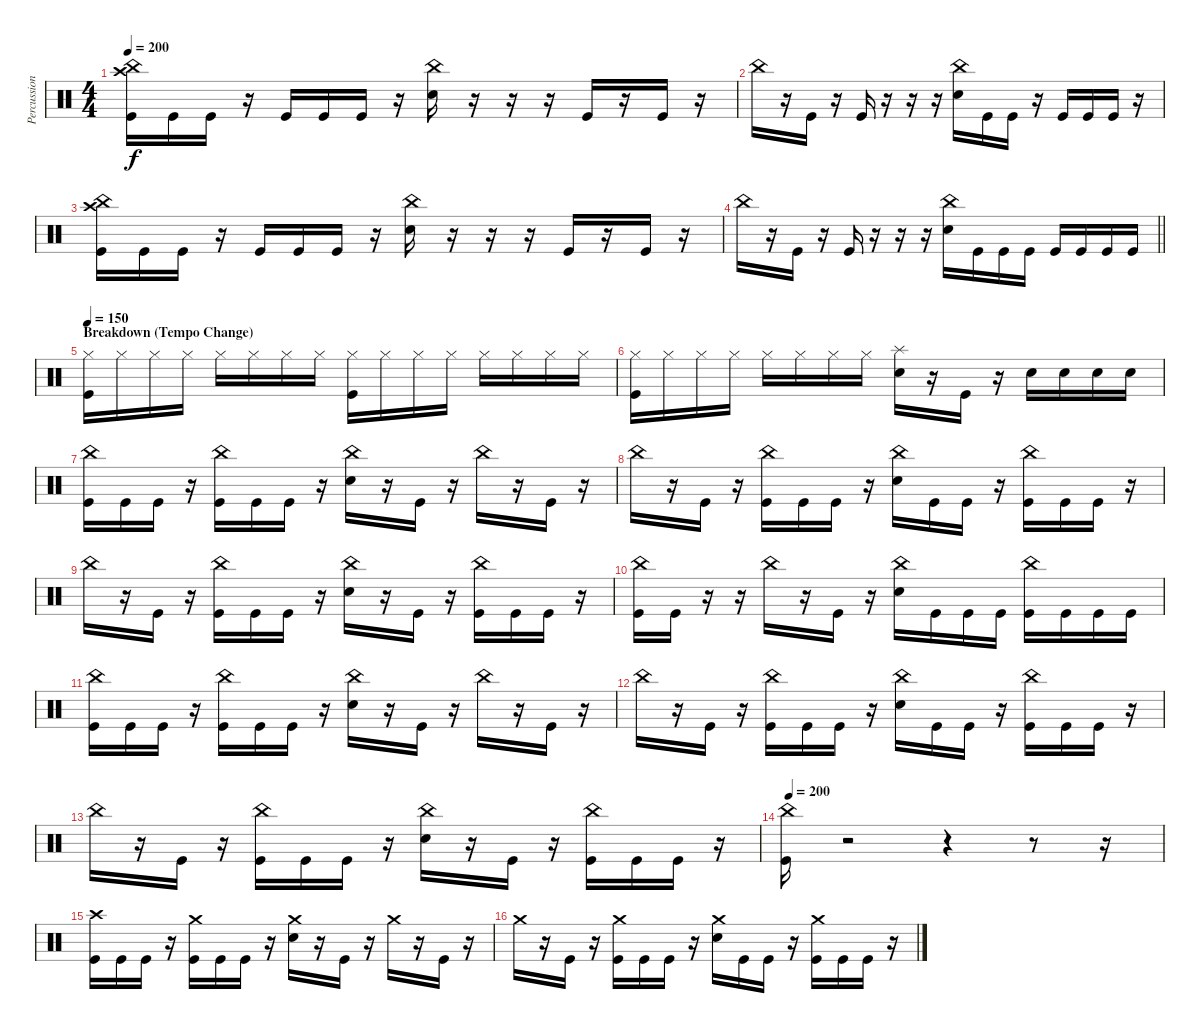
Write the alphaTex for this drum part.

\track ("Percussion" "Percussion") {instrument percussion}
\staff {score}
\articulation defaults
\ts (4 4)
\tempo 200
\clef neutral
\ks c
("China (hit)" "Crash high (hit)" "Kick (hit)").16{dy f} "Kick (hit)".16 "Kick (hit)".16 r.16 "Kick (hit)".16 "Kick (hit)".16 "Kick (hit)".16 r.16 ("China (hit)" "Snare (hit) 2").16 r.16 r.16 r.16 "Kick (hit)".16 r.16 "Kick (hit)".16 r.16 |
"China (hit)".16 r.16 "Kick (hit)".16 r.16 "Kick (hit)".16 r.16 r.16 r.16 ("Snare (hit) 2" "China (hit)").16 "Kick (hit)".16 "Kick (hit)".16 r.16 "Kick (hit)".16 "Kick (hit)".16 "Kick (hit)".16 r.16 |
("China (hit)" "Crash high (hit)" "Kick (hit)").16 "Kick (hit)".16 "Kick (hit)".16 r.16 "Kick (hit)".16 "Kick (hit)".16 "Kick (hit)".16 r.16 ("China (hit)" "Snare (hit) 2").16 r.16 r.16 r.16 "Kick (hit)".16 r.16 "Kick (hit)".16 r.16 |
\barLineRight lightlight "China (hit)".16
r.16 "Kick (hit)".16 r.16 "Kick (hit)".16 r.16 r.16 r.16 ("Snare (hit) 2" "China (hit)").16 "Kick (hit)".16 "Kick (hit)".16 "Kick (hit)".16 "Kick (hit)".16 "Kick (hit)".16 "Kick (hit)".16 "Kick (hit)".16 |
\section ("" "Breakdown (Tempo Change)")
\tempo 150
("Kick (hit)" "Hi-Hat (closed)").16 "Hi-Hat (closed)".16 "Hi-Hat (closed)".16 "Hi-Hat (closed)".16 "Hi-Hat (closed)".16 "Hi-Hat (closed)".16 "Hi-Hat (closed)".16 "Hi-Hat (closed)".16 ("Kick (hit)" "Hi-Hat (closed)").16 "Hi-Hat (closed)".16 "Hi-Hat (closed)".16 "Hi-Hat (closed)".16 "Hi-Hat (closed)".16 "Hi-Hat (closed)".16 "Hi-Hat (closed)".16 "Hi-Hat (closed)".16 |
("Kick (hit)" "Hi-Hat (closed)").16 "Hi-Hat (closed)".16 "Hi-Hat (closed)".16 "Hi-Hat (closed)".16 "Hi-Hat (closed)".16 "Hi-Hat (closed)".16 "Hi-Hat (closed)".16 "Hi-Hat (closed)".16 ("Snare (hit) 2" "Splash (hit)").16 r.16 "Kick (hit)".16 r.16 "Snare (hit) 2".16 "Snare (hit) 2".16 "Snare (hit) 2".16 "Snare (hit) 2".16 |
("China (hit)" "Kick (hit)").16 "Kick (hit)".16 "Kick (hit)".16 r.16 ("China (hit)" "Kick (hit)").16 "Kick (hit)".16 "Kick (hit)".16 r.16 ("Snare (hit) 2" "China (hit)").16 r.16 "Kick (hit)".16 r.16 "China (hit)".16 r.16 "Kick (hit)".16 r.16 |
"China (hit)".16 r.16 "Kick (hit)".16 r.16 ("China (hit)" "Kick (hit)").16 "Kick (hit)".16 "Kick (hit)".16 r.16 ("China (hit)" "Snare (hit) 2").16 "Kick (hit)".16 "Kick (hit)".16 r.16 ("China (hit)" "Kick (hit)").16 "Kick (hit)".16 "Kick (hit)".16 r.16 |
"China (hit)".16 r.16 "Kick (hit)".16 r.16 ("China (hit)" "Kick (hit)").16 "Kick (hit)".16 "Kick (hit)".16 r.16 ("Snare (hit) 2" "China (hit)").16 r.16 "Kick (hit)".16 r.16 ("China (hit)" "Kick (hit)").16 "Kick (hit)".16 "Kick (hit)".16 r.16 |
("Kick (hit)" "China (hit)").16 "Kick (hit)".16 r.16 r.16 "China (hit)".16 r.16 "Kick (hit)".16 r.16 ("China (hit)" "Snare (hit) 2").16 "Kick (hit)".16 "Kick (hit)".16 "Kick (hit)".16 ("China (hit)" "Kick (hit)").16 "Kick (hit)".16 "Kick (hit)".16 "Kick (hit)".16 |
("China (hit)" "Kick (hit)").16 "Kick (hit)".16 "Kick (hit)".16 r.16 ("China (hit)" "Kick (hit)").16 "Kick (hit)".16 "Kick (hit)".16 r.16 ("Snare (hit) 2" "China (hit)").16 r.16 "Kick (hit)".16 r.16 "China (hit)".16 r.16 "Kick (hit)".16 r.16 |
"China (hit)".16 r.16 "Kick (hit)".16 r.16 ("China (hit)" "Kick (hit)").16 "Kick (hit)".16 "Kick (hit)".16 r.16 ("China (hit)" "Snare (hit) 2").16 "Kick (hit)".16 "Kick (hit)".16 r.16 ("China (hit)" "Kick (hit)").16 "Kick (hit)".16 "Kick (hit)".16 r.16 |
"China (hit)".16 r.16 "Kick (hit)".16 r.16 ("China (hit)" "Kick (hit)").16 "Kick (hit)".16 "Kick (hit)".16 r.16 ("Snare (hit) 2" "China (hit)").16 r.16 "Kick (hit)".16 r.16 ("China (hit)" "Kick (hit)").16 "Kick (hit)".16 "Kick (hit)".16 r.16 |
\tempo 200
("Kick (hit)" "China (hit)").16 r.2 r.4 r.8 r.16 |
("Crash high (hit)" "Kick (hit)").16 "Kick (hit)".16 "Kick (hit)".16 r.16 ("Crash medium (hit)" "Kick (hit)").16 "Kick (hit)".16 "Kick (hit)".16 r.16 ("Snare (hit) 2" "Crash medium (hit)").16 r.16 "Kick (hit)".16 r.16 "Crash medium (hit)".16 r.16 "Kick (hit)".16 r.16 |
"Crash medium (hit)".16 r.16 "Kick (hit)".16 r.16 ("Crash medium (hit)" "Kick (hit)").16 "Kick (hit)".16 "Kick (hit)".16 r.16 ("Crash medium (hit)" "Snare (hit) 2").16 "Kick (hit)".16 "Kick (hit)".16 r.16 ("Crash medium (hit)" "Kick (hit)").16 "Kick (hit)".16 "Kick (hit)".16 r.16
